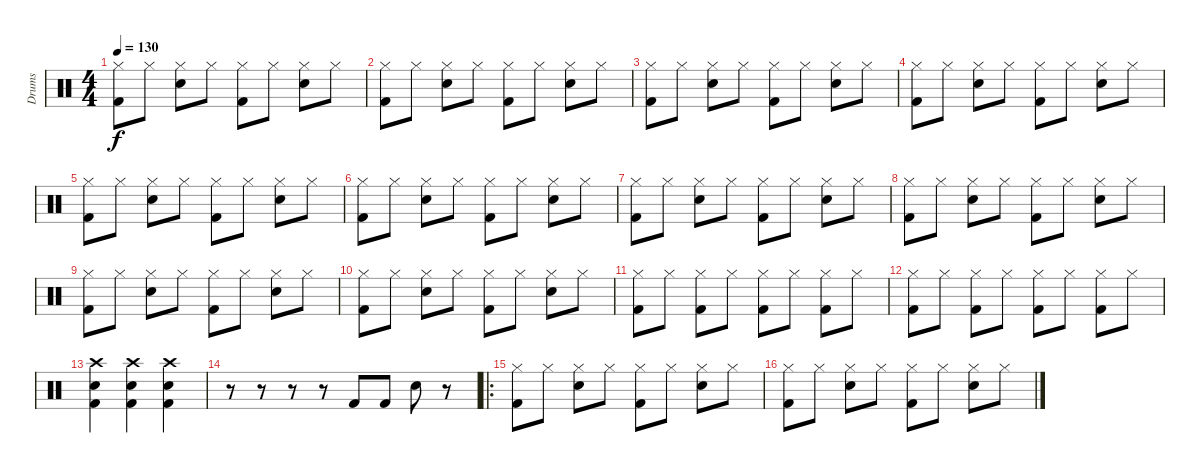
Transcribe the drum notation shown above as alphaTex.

\track ("Drums" "Drums") {instrument percussion}
\staff {score}
\articulation defaults
\ts (4 4)
\tempo 130
\clef neutral
\ks c
("Hi-Hat (closed)" "Kick (hit) 2").8{dy f} "Hi-Hat (closed)".8 ("Hi-Hat (closed)" "Snare (hit) 2").8 "Hi-Hat (closed)".8 ("Hi-Hat (closed)" "Kick (hit) 2").8 "Hi-Hat (closed)".8 ("Hi-Hat (closed)" "Snare (hit) 2").8 "Hi-Hat (closed)".8 |
("Hi-Hat (closed)" "Kick (hit) 2").8 "Hi-Hat (closed)".8 ("Hi-Hat (closed)" "Snare (hit) 2").8 "Hi-Hat (closed)".8 ("Hi-Hat (closed)" "Kick (hit) 2").8 "Hi-Hat (closed)".8 ("Hi-Hat (closed)" "Snare (hit) 2").8 "Hi-Hat (closed)".8 |
("Hi-Hat (closed)" "Kick (hit) 2").8 "Hi-Hat (closed)".8 ("Hi-Hat (closed)" "Snare (hit) 2").8 "Hi-Hat (closed)".8 ("Hi-Hat (closed)" "Kick (hit) 2").8 "Hi-Hat (closed)".8 ("Hi-Hat (closed)" "Snare (hit) 2").8 "Hi-Hat (closed)".8 |
("Hi-Hat (closed)" "Kick (hit) 2").8 "Hi-Hat (closed)".8 ("Hi-Hat (closed)" "Snare (hit) 2").8 "Hi-Hat (closed)".8 ("Hi-Hat (closed)" "Kick (hit) 2").8 "Hi-Hat (closed)".8 ("Hi-Hat (closed)" "Snare (hit) 2").8 "Hi-Hat (closed)".8 |
("Hi-Hat (closed)" "Kick (hit) 2").8 "Hi-Hat (closed)".8 ("Hi-Hat (closed)" "Snare (hit) 2").8 "Hi-Hat (closed)".8 ("Hi-Hat (closed)" "Kick (hit) 2").8 "Hi-Hat (closed)".8 ("Hi-Hat (closed)" "Snare (hit) 2").8 "Hi-Hat (closed)".8 |
("Hi-Hat (closed)" "Kick (hit) 2").8 "Hi-Hat (closed)".8 ("Hi-Hat (closed)" "Snare (hit) 2").8 "Hi-Hat (closed)".8 ("Hi-Hat (closed)" "Kick (hit) 2").8 "Hi-Hat (closed)".8 ("Hi-Hat (closed)" "Snare (hit) 2").8 "Hi-Hat (closed)".8 |
("Hi-Hat (closed)" "Kick (hit) 2").8 "Hi-Hat (closed)".8 ("Hi-Hat (closed)" "Snare (hit) 2").8 "Hi-Hat (closed)".8 ("Hi-Hat (closed)" "Kick (hit) 2").8 "Hi-Hat (closed)".8 ("Hi-Hat (closed)" "Snare (hit) 2").8 "Hi-Hat (closed)".8 |
("Hi-Hat (closed)" "Kick (hit) 2").8 "Hi-Hat (closed)".8 ("Hi-Hat (closed)" "Snare (hit) 2").8 "Hi-Hat (closed)".8 ("Hi-Hat (closed)" "Kick (hit) 2").8 "Hi-Hat (closed)".8 ("Hi-Hat (closed)" "Snare (hit) 2").8 "Hi-Hat (closed)".8 |
("Hi-Hat (closed)" "Kick (hit) 2").8 "Hi-Hat (closed)".8 ("Hi-Hat (closed)" "Snare (hit) 2").8 "Hi-Hat (closed)".8 ("Hi-Hat (closed)" "Kick (hit) 2").8 "Hi-Hat (closed)".8 ("Hi-Hat (closed)" "Snare (hit) 2").8 "Hi-Hat (closed)".8 |
("Hi-Hat (closed)" "Kick (hit) 2").8 "Hi-Hat (closed)".8 ("Hi-Hat (closed)" "Snare (hit) 2").8 "Hi-Hat (closed)".8 ("Hi-Hat (closed)" "Kick (hit) 2").8 "Hi-Hat (closed)".8 ("Hi-Hat (closed)" "Snare (hit) 2").8 "Hi-Hat (closed)".8 |
("Hi-Hat (closed)" "Kick (hit) 2").8 "Hi-Hat (closed)".8 ("Hi-Hat (closed)" "Kick (hit) 2").8 "Hi-Hat (closed)".8 ("Hi-Hat (closed)" "Kick (hit) 2").8 "Hi-Hat (closed)".8 ("Hi-Hat (closed)" "Kick (hit) 2").8 "Hi-Hat (closed)".8 |
("Hi-Hat (closed)" "Kick (hit) 2").8 "Hi-Hat (closed)".8 ("Hi-Hat (closed)" "Kick (hit) 2").8 "Hi-Hat (closed)".8 ("Hi-Hat (closed)" "Kick (hit) 2").8 "Hi-Hat (closed)".8 ("Hi-Hat (closed)" "Kick (hit) 2").8 "Hi-Hat (closed)".8 |
("Crash high (hit)" "Kick (hit) 2" "Snare (hit) 2").4 ("Crash high (hit)" "Kick (hit) 2" "Snare (hit) 2").4 ("Crash high (hit)" "Kick (hit) 2" "Snare (hit) 2").4 |
r.8 r.8 r.8 r.8 "Kick (hit) 2".8 "Kick (hit) 2".8 "Snare (hit) 2".8 r.8 |
\ro
("Hi-Hat (closed)" "Kick (hit) 2").8 "Hi-Hat (closed)".8 ("Hi-Hat (closed)" "Snare (hit) 2").8 "Hi-Hat (closed)".8 ("Hi-Hat (closed)" "Kick (hit) 2").8 "Hi-Hat (closed)".8 ("Hi-Hat (closed)" "Snare (hit) 2").8 "Hi-Hat (closed)".8 |
("Hi-Hat (closed)" "Kick (hit) 2").8 "Hi-Hat (closed)".8 ("Hi-Hat (closed)" "Snare (hit) 2").8 "Hi-Hat (closed)".8 ("Hi-Hat (closed)" "Kick (hit) 2").8 "Hi-Hat (closed)".8 ("Hi-Hat (closed)" "Snare (hit) 2").8 "Hi-Hat (closed)".8
